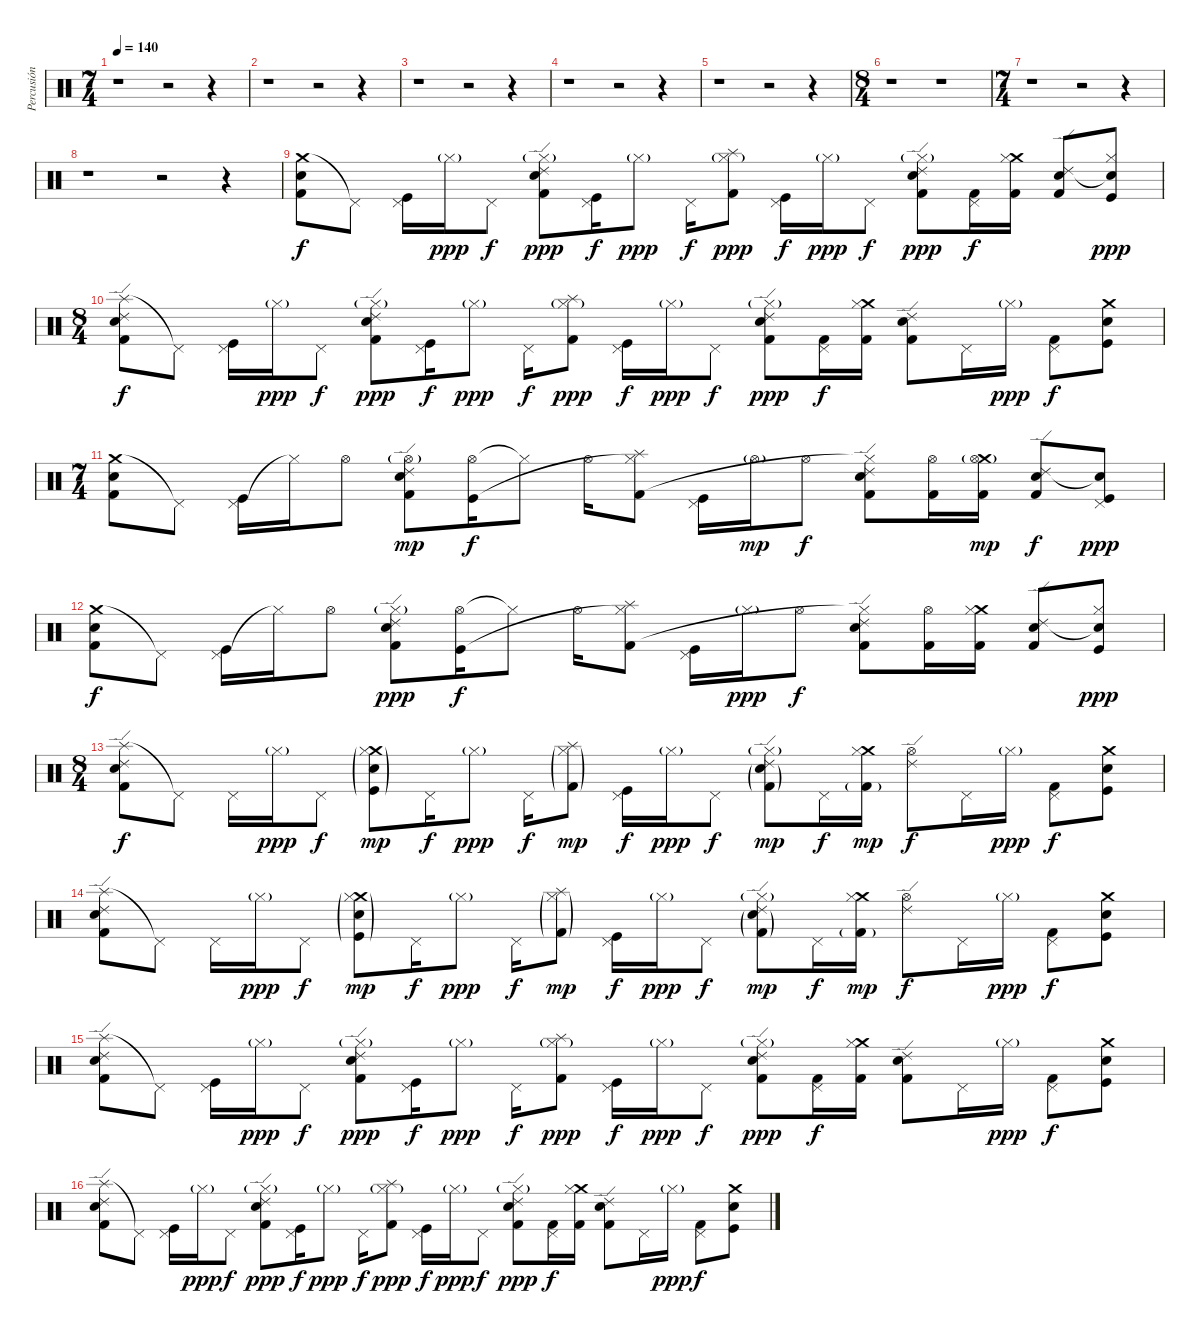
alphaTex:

\track ("Percusión" "Percusión") {instrument percussion}
\staff {score}
\articulation defaults
\ts (7 4)
\tempo 140
\clef neutral
\ks c
r.1{dy f} r.2 r.4 |
r.1 r.2 r.4 |
r.1 r.2 r.4 |
r.1 r.2 r.4 |
r.1 r.2 r.4 |
\ts (8 4)
r.1 r.1 |
\ts (7 4)
r.1 r.2 r.4 |
r.1 r.2 r.4 |
("Crash medium (hit)" "Electric Snare (hit)" "Kick (hit) 2").8 "Pedal Hi-Hat (hit)"{t}.8 ("Pedal Hi-Hat (hit)" "Kick (hit)").16 "Hi-Hat (closed)"{g}.16{dy ppp} "Pedal Hi-Hat (hit)".8{dy f} ("Ride (edge) 2" "Electric Snare (hit)" "Hi-Hat (closed)"{g} "Kick (hit) 2").8{dy ppp} ("Pedal Hi-Hat (hit)" "Kick (hit)").16{dy f} "Hi-Hat (closed)"{g}.8{dy ppp} "Pedal Hi-Hat (hit)".16{dy f} ("Splash (hit)" "Hi-Hat (closed)"{g} "Kick (hit) 2").8{dy ppp} ("Pedal Hi-Hat (hit)" "Kick (hit)").16{dy f} "Hi-Hat (closed)"{g}.16{dy ppp} "Pedal Hi-Hat (hit)".8{dy f} ("Ride (edge) 2" "Electric Snare (hit)" "Hi-Hat (closed)"{g} "Kick (hit) 2").8{dy ppp} ("Pedal Hi-Hat (hit)" "Kick (hit) 2").16{dy f} ("Crash medium (hit)" "Hi-Hat (closed)" "Kick (hit) 2").16 ("Ride (edge) 2" "Electric Snare (hit)" "Kick (hit) 2").8 ("Snare (hit)"{t} "Hi-Hat (closed)" "Kick (hit)").8{dy ppp} |
\ts (8 4)
("Splash (hit)" "Ride (edge) 2" "Electric Snare (hit)" "Kick (hit) 2").8{dy f} "Pedal Hi-Hat (hit)"{t}.8 ("Pedal Hi-Hat (hit)" "Kick (hit)").16 "Hi-Hat (closed)"{g}.16{dy ppp} "Pedal Hi-Hat (hit)".8{dy f} ("Ride (edge) 2" "Electric Snare (hit)" "Hi-Hat (closed)"{g} "Kick (hit) 2").8{dy ppp} ("Pedal Hi-Hat (hit)" "Kick (hit)").16{dy f} "Hi-Hat (closed)"{g}.8{dy ppp} "Pedal Hi-Hat (hit)".16{dy f} ("Splash (hit)" "Hi-Hat (closed)"{g} "Kick (hit) 2").8{dy ppp} ("Pedal Hi-Hat (hit)" "Kick (hit)").16{dy f} "Hi-Hat (closed)"{g}.16{dy ppp} "Pedal Hi-Hat (hit)".8{dy f} ("Ride (edge) 2" "Electric Snare (hit)" "Hi-Hat (closed)"{g} "Kick (hit) 2").8{dy ppp} ("Pedal Hi-Hat (hit)" "Kick (hit) 2").16{dy f} ("Crash medium (hit)" "Hi-Hat (closed)" "Kick (hit) 2").16 ("Ride (edge) 2" "Electric Snare (hit)" "Kick (hit) 2").8 "Pedal Hi-Hat (hit)".16 "Hi-Hat (closed)"{g}.16{dy ppp} ("Pedal Hi-Hat (hit)" "Kick (hit) 2").8{dy f} ("Crash medium (hit)" "Electric Snare (hit)" "Kick (hit)").8 |
\ts (7 4)
("Crash medium (hit)" "Electric Snare (hit)" "Kick (hit) 2").8 "Pedal Hi-Hat (hit)"{t}.8 ("Pedal Hi-Hat (hit)" "Kick (hit)").16 "Hi-Hat (closed)"{t}.16 "Hi-Hat (open)".8 ("Ride (edge) 2" "Electric Snare (hit)" "Hi-Hat (open)"{g} "Kick (hit) 2").8{dy mp} ("Hi-Hat (open)" "Kick (hit)").16{dy f} "Hi-Hat (closed)"{t}.8 "Hi-Hat (open)".16 ("Splash (hit)" "Hi-Hat (closed)"{t} "Kick (hit) 2").8 ("Pedal Hi-Hat (hit)" "Kick (hit)").16 "Hi-Hat (open)"{g}.16{dy mp} "Hi-Hat (open)".8{dy f} ("Ride (edge) 2" "Electric Snare (hit)" "Hi-Hat (closed)"{t} "Kick (hit) 2").8 ("Hi-Hat (open)" "Kick (hit) 2").16 ("Crash medium (hit)" "Hi-Hat (open)"{g} "Kick (hit) 2").16{dy mp} ("Ride (edge) 2" "Electric Snare (hit)" "Kick (hit) 2").8{dy f} ("Snare (hit)"{t} "Pedal Hi-Hat (hit)" "Kick (hit)").8{dy ppp} |
("Crash medium (hit)" "Electric Snare (hit)" "Kick (hit) 2").8{dy f} "Pedal Hi-Hat (hit)"{t}.8 ("Pedal Hi-Hat (hit)" "Kick (hit)").16 "Hi-Hat (closed)"{t}.16 "Hi-Hat (open)".8 ("Ride (edge) 2" "Electric Snare (hit)" "Hi-Hat (closed)"{g} "Kick (hit) 2").8{dy ppp} ("Hi-Hat (open)" "Kick (hit)").16{dy f} "Hi-Hat (closed)"{t}.8 "Hi-Hat (open)".16 ("Splash (hit)" "Hi-Hat (closed)"{t} "Kick (hit) 2").8 ("Pedal Hi-Hat (hit)" "Kick (hit)").16 "Hi-Hat (closed)"{g}.16{dy ppp} "Hi-Hat (open)".8{dy f} ("Ride (edge) 2" "Electric Snare (hit)" "Hi-Hat (closed)"{t} "Kick (hit) 2").8 ("Hi-Hat (open)" "Kick (hit) 2").16 ("Crash medium (hit)" "Hi-Hat (closed)" "Kick (hit) 2").16 ("Ride (edge) 2" "Electric Snare (hit)" "Kick (hit) 2").8 ("Snare (hit)"{t} "Hi-Hat (closed)" "Kick (hit)").8{dy ppp} |
\ts (8 4)
("Splash (hit)" "Ride (edge) 2" "Electric Snare (hit)" "Kick (hit) 2").8{dy f} "Pedal Hi-Hat (hit)"{t}.8 "Pedal Hi-Hat (hit)".16 "Hi-Hat (closed)"{g}.16{dy ppp} "Pedal Hi-Hat (hit)".8{dy f} ("Crash medium (hit)" "Snare (hit) 2"{g} "Hi-Hat (closed)"{g} "Kick (hit)"{g}).8{dy mp} "Pedal Hi-Hat (hit)".16{dy f} "Hi-Hat (closed)"{g}.8{dy ppp} "Pedal Hi-Hat (hit)".16{dy f} ("Splash (hit)" "Hi-Hat (closed)"{g} "Kick (hit) 2"{g}).8{dy mp} ("Pedal Hi-Hat (hit)" "Kick (hit)").16{dy f} "Hi-Hat (closed)"{g}.16{dy ppp} "Pedal Hi-Hat (hit)".8{dy f} ("Ride (edge) 2" "Electric Snare (hit)"{g} "Hi-Hat (closed)"{g} "Kick (hit) 2"{g}).8{dy mp} "Pedal Hi-Hat (hit)".16{dy f} ("Crash medium (hit)" "Hi-Hat (closed)" "Kick (hit) 2"{g}).16{dy mp} ("Ride (edge) 2" "Hi-Hat (open)").8{dy f} "Pedal Hi-Hat (hit)".16 "Hi-Hat (closed)"{g}.16{dy ppp} ("Pedal Hi-Hat (hit)" "Kick (hit) 2").8{dy f} ("Crash medium (hit)" "Electric Snare (hit)" "Kick (hit)").8 |
("Splash (hit)" "Ride (edge) 2" "Electric Snare (hit)" "Kick (hit) 2").8 "Pedal Hi-Hat (hit)"{t}.8 "Pedal Hi-Hat (hit)".16 "Hi-Hat (closed)"{g}.16{dy ppp} "Pedal Hi-Hat (hit)".8{dy f} ("Crash medium (hit)" "Snare (hit) 2"{g} "Hi-Hat (closed)"{g} "Kick (hit)"{g}).8{dy mp} "Pedal Hi-Hat (hit)".16{dy f} "Hi-Hat (closed)"{g}.8{dy ppp} "Pedal Hi-Hat (hit)".16{dy f} ("Splash (hit)" "Hi-Hat (closed)"{g} "Kick (hit) 2"{g}).8{dy mp} ("Pedal Hi-Hat (hit)" "Kick (hit)").16{dy f} "Hi-Hat (closed)"{g}.16{dy ppp} "Pedal Hi-Hat (hit)".8{dy f} ("Ride (edge) 2" "Electric Snare (hit)"{g} "Hi-Hat (closed)"{g} "Kick (hit) 2"{g}).8{dy mp} "Pedal Hi-Hat (hit)".16{dy f} ("Crash medium (hit)" "Hi-Hat (closed)" "Kick (hit) 2"{g}).16{dy mp} ("Ride (edge) 2" "Hi-Hat (open)").8{dy f} "Pedal Hi-Hat (hit)".16 "Hi-Hat (closed)"{g}.16{dy ppp} ("Pedal Hi-Hat (hit)" "Kick (hit) 2").8{dy f} ("Crash medium (hit)" "Electric Snare (hit)" "Kick (hit)").8 |
("Splash (hit)" "Ride (edge) 2" "Electric Snare (hit)" "Kick (hit) 2").8 "Pedal Hi-Hat (hit)"{t}.8 ("Pedal Hi-Hat (hit)" "Kick (hit)").16 "Hi-Hat (closed)"{g}.16{dy ppp} "Pedal Hi-Hat (hit)".8{dy f} ("Ride (edge) 2" "Electric Snare (hit)" "Hi-Hat (closed)"{g} "Kick (hit) 2").8{dy ppp} ("Pedal Hi-Hat (hit)" "Kick (hit)").16{dy f} "Hi-Hat (closed)"{g}.8{dy ppp} "Pedal Hi-Hat (hit)".16{dy f} ("Splash (hit)" "Hi-Hat (closed)"{g} "Kick (hit) 2").8{dy ppp} ("Pedal Hi-Hat (hit)" "Kick (hit)").16{dy f} "Hi-Hat (closed)"{g}.16{dy ppp} "Pedal Hi-Hat (hit)".8{dy f} ("Ride (edge) 2" "Electric Snare (hit)" "Hi-Hat (closed)"{g} "Kick (hit) 2").8{dy ppp} ("Pedal Hi-Hat (hit)" "Kick (hit) 2").16{dy f} ("Crash medium (hit)" "Hi-Hat (closed)" "Kick (hit) 2").16 ("Ride (edge) 2" "Electric Snare (hit)" "Kick (hit) 2").8 "Pedal Hi-Hat (hit)".16 "Hi-Hat (closed)"{g}.16{dy ppp} ("Pedal Hi-Hat (hit)" "Kick (hit) 2").8{dy f} ("Crash medium (hit)" "Electric Snare (hit)" "Kick (hit)").8 |
("Splash (hit)" "Ride (edge) 2" "Electric Snare (hit)" "Kick (hit) 2").8 "Pedal Hi-Hat (hit)"{t}.8 ("Pedal Hi-Hat (hit)" "Kick (hit)").16 "Hi-Hat (closed)"{g}.16{dy ppp} "Pedal Hi-Hat (hit)".8{dy f} ("Ride (edge) 2" "Electric Snare (hit)" "Hi-Hat (closed)"{g} "Kick (hit) 2").8{dy ppp} ("Pedal Hi-Hat (hit)" "Kick (hit)").16{dy f} "Hi-Hat (closed)"{g}.8{dy ppp} "Pedal Hi-Hat (hit)".16{dy f} ("Splash (hit)" "Hi-Hat (closed)"{g} "Kick (hit) 2").8{dy ppp} ("Pedal Hi-Hat (hit)" "Kick (hit)").16{dy f} "Hi-Hat (closed)"{g}.16{dy ppp} "Pedal Hi-Hat (hit)".8{dy f} ("Ride (edge) 2" "Electric Snare (hit)" "Hi-Hat (closed)"{g} "Kick (hit) 2").8{dy ppp} ("Pedal Hi-Hat (hit)" "Kick (hit) 2").16{dy f} ("Crash medium (hit)" "Hi-Hat (closed)" "Kick (hit) 2").16 ("Ride (edge) 2" "Electric Snare (hit)" "Kick (hit) 2").8 "Pedal Hi-Hat (hit)".16 "Hi-Hat (closed)"{g}.16{dy ppp} ("Pedal Hi-Hat (hit)" "Kick (hit) 2").8{dy f} ("Crash medium (hit)" "Electric Snare (hit)" "Kick (hit)").8
